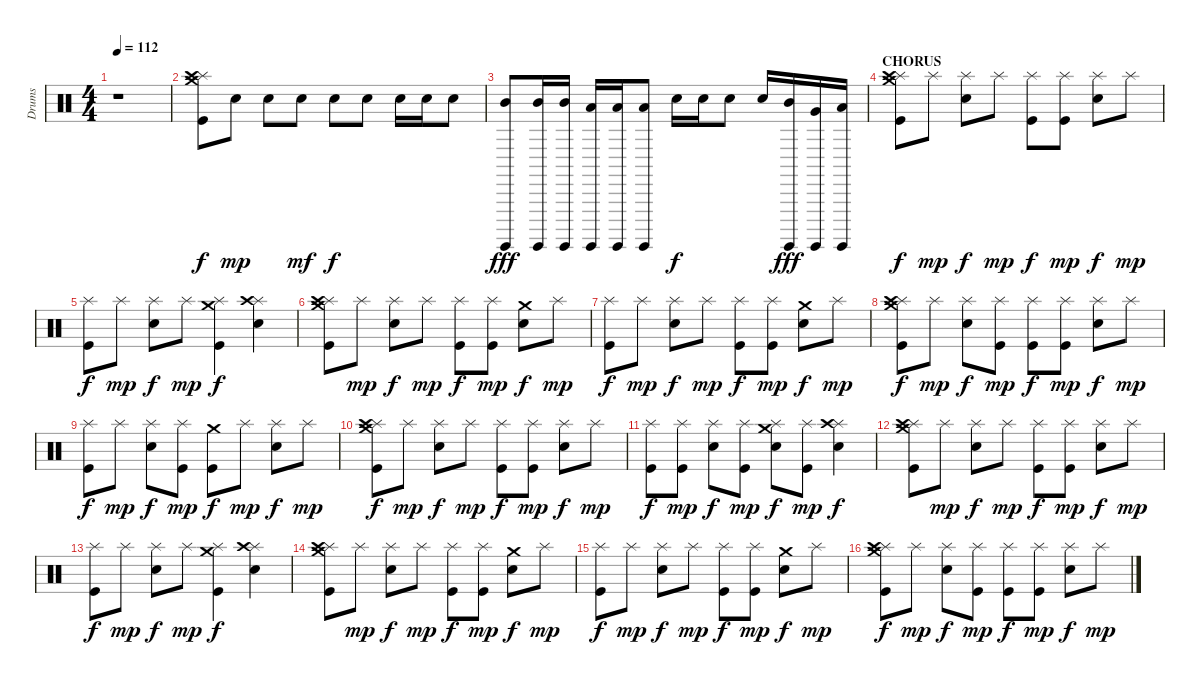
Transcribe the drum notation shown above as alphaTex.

\track ("Drums" "Drums") {instrument percussion}
\staff {score}
\articulation defaults
\ts (4 4)
\tempo 112
\clef neutral
\ks c
r.1{dy mp} |
("Crash medium (hit)" "Splash (hit)" "Crash high (hit)" "Kick (hit)").8{dy f} "Electric Snare (hit)".8{dy mp} "Electric Snare (hit)".8 "Electric Snare (hit)".8{dy mf} "Electric Snare (hit)".8{dy f} "Electric Snare (hit)".8 "Electric Snare (hit)".16 "Electric Snare (hit)".16 "Electric Snare (hit)".8 |
("Surdo (hit)" "Mid Tom (hit)").8{dy fff} ("Surdo (hit)" "Mid Tom (hit)").16 ("Surdo (hit)" "Mid Tom (hit)").16 ("Surdo (hit)" "Low Tom (hit)").16 ("Surdo (hit)" "Low Tom (hit)").16 ("Surdo (hit)" "Low Tom (hit)").8 "Electric Snare (hit)".16{dy f} "Electric Snare (hit)".16 "Electric Snare (hit)".8 "Electric Snare (hit)".16 ("Surdo (hit)" "Mid Tom (hit)").16{dy fff} ("Surdo (hit)" "Very Low Tom (hit)").16 ("Surdo (hit)" "Low Floor Tom (hit)").16 |
\section ("" "CHORUS")
("Crash medium (hit)" "Splash (hit)" "Crash high (hit)" "Kick (hit)").8{dy f} "Splash (hit)".8{dy mp} ("Splash (hit)" "Electric Snare (hit)").8{dy f} "Splash (hit)".8{dy mp} ("Splash (hit)" "Kick (hit)").8{dy f} ("Splash (hit)" "Kick (hit)").8{dy mp} ("Splash (hit)" "Electric Snare (hit)").8{dy f} "Splash (hit)".8{dy mp} |
("Splash (hit)" "Kick (hit)").8{dy f} "Splash (hit)".8{dy mp} ("Splash (hit)" "Electric Snare (hit)").8{dy f} "Splash (hit)".8{dy mp} ("Crash medium (hit)" "Splash (hit)" "Kick (hit)").4{dy f} ("Splash (hit)" "Crash high (hit)" "Electric Snare (hit)").4 |
("Crash medium (hit)" "Splash (hit)" "Crash high (hit)" "Kick (hit)").8 "Splash (hit)".8{dy mp} ("Splash (hit)" "Electric Snare (hit)").8{dy f} "Splash (hit)".8{dy mp} ("Splash (hit)" "Kick (hit)").8{dy f} ("Splash (hit)" "Kick (hit)").8{dy mp} ("Crash medium (hit)" "Electric Snare (hit)").8{dy f} "Splash (hit)".8{dy mp} |
("Splash (hit)" "Kick (hit)").8{dy f} "Splash (hit)".8{dy mp} ("Splash (hit)" "Electric Snare (hit)").8{dy f} "Splash (hit)".8{dy mp} ("Splash (hit)" "Kick (hit)").8{dy f} ("Splash (hit)" "Kick (hit)").8{dy mp} ("Crash medium (hit)" "Electric Snare (hit)").8{dy f} "Splash (hit)".8{dy mp} |
("Crash medium (hit)" "Splash (hit)" "Crash high (hit)" "Kick (hit)").8{dy f} "Splash (hit)".8{dy mp} ("Splash (hit)" "Electric Snare (hit)").8{dy f} ("Splash (hit)" "Kick (hit)").8{dy mp} ("Splash (hit)" "Kick (hit)").8{dy f} ("Splash (hit)" "Kick (hit)").8{dy mp} ("Splash (hit)" "Electric Snare (hit)").8{dy f} "Splash (hit)".8{dy mp} |
("Splash (hit)" "Kick (hit)").8{dy f} "Splash (hit)".8{dy mp} ("Splash (hit)" "Electric Snare (hit)").8{dy f} ("Splash (hit)" "Kick (hit)").8{dy mp} ("Crash medium (hit)" "Kick (hit)").8{dy f} "Splash (hit)".8{dy mp} ("Splash (hit)" "Electric Snare (hit)").8{dy f} "Splash (hit)".8{dy mp} |
("Crash medium (hit)" "Splash (hit)" "Crash high (hit)" "Kick (hit)").8{dy f} "Splash (hit)".8{dy mp} ("Splash (hit)" "Electric Snare (hit)").8{dy f} "Splash (hit)".8{dy mp} ("Splash (hit)" "Kick (hit)").8{dy f} ("Splash (hit)" "Kick (hit)").8{dy mp} ("Splash (hit)" "Electric Snare (hit)").8{dy f} "Splash (hit)".8{dy mp} |
("Splash (hit)" "Kick (hit)").8{dy f} ("Splash (hit)" "Kick (hit)").8{dy mp} ("Splash (hit)" "Electric Snare (hit)").8{dy f} ("Splash (hit)" "Kick (hit)").8{dy mp} ("Crash medium (hit)" "Splash (hit)" "Electric Snare (hit)").8{dy f} ("Splash (hit)" "Kick (hit)").8{dy mp} ("Splash (hit)" "Crash high (hit)" "Electric Snare (hit)").4{dy f} |
("Crash medium (hit)" "Splash (hit)" "Crash high (hit)" "Kick (hit)").8 "Splash (hit)".8{dy mp} ("Splash (hit)" "Electric Snare (hit)").8{dy f} "Splash (hit)".8{dy mp} ("Splash (hit)" "Kick (hit)").8{dy f} ("Splash (hit)" "Kick (hit)").8{dy mp} ("Splash (hit)" "Electric Snare (hit)").8{dy f} "Splash (hit)".8{dy mp} |
("Splash (hit)" "Kick (hit)").8{dy f} "Splash (hit)".8{dy mp} ("Splash (hit)" "Electric Snare (hit)").8{dy f} "Splash (hit)".8{dy mp} ("Crash medium (hit)" "Splash (hit)" "Kick (hit)").4{dy f} ("Splash (hit)" "Crash high (hit)" "Electric Snare (hit)").4 |
("Crash medium (hit)" "Splash (hit)" "Crash high (hit)" "Kick (hit)").8 "Splash (hit)".8{dy mp} ("Splash (hit)" "Electric Snare (hit)").8{dy f} "Splash (hit)".8{dy mp} ("Splash (hit)" "Kick (hit)").8{dy f} ("Splash (hit)" "Kick (hit)").8{dy mp} ("Crash medium (hit)" "Electric Snare (hit)").8{dy f} "Splash (hit)".8{dy mp} |
("Splash (hit)" "Kick (hit)").8{dy f} "Splash (hit)".8{dy mp} ("Splash (hit)" "Electric Snare (hit)").8{dy f} "Splash (hit)".8{dy mp} ("Splash (hit)" "Kick (hit)").8{dy f} ("Splash (hit)" "Kick (hit)").8{dy mp} ("Crash medium (hit)" "Electric Snare (hit)").8{dy f} "Splash (hit)".8{dy mp} |
("Crash medium (hit)" "Splash (hit)" "Crash high (hit)" "Kick (hit)").8{dy f} "Splash (hit)".8{dy mp} ("Splash (hit)" "Electric Snare (hit)").8{dy f} ("Splash (hit)" "Kick (hit)").8{dy mp} ("Splash (hit)" "Kick (hit)").8{dy f} ("Splash (hit)" "Kick (hit)").8{dy mp} ("Splash (hit)" "Electric Snare (hit)").8{dy f} "Splash (hit)".8{dy mp}
